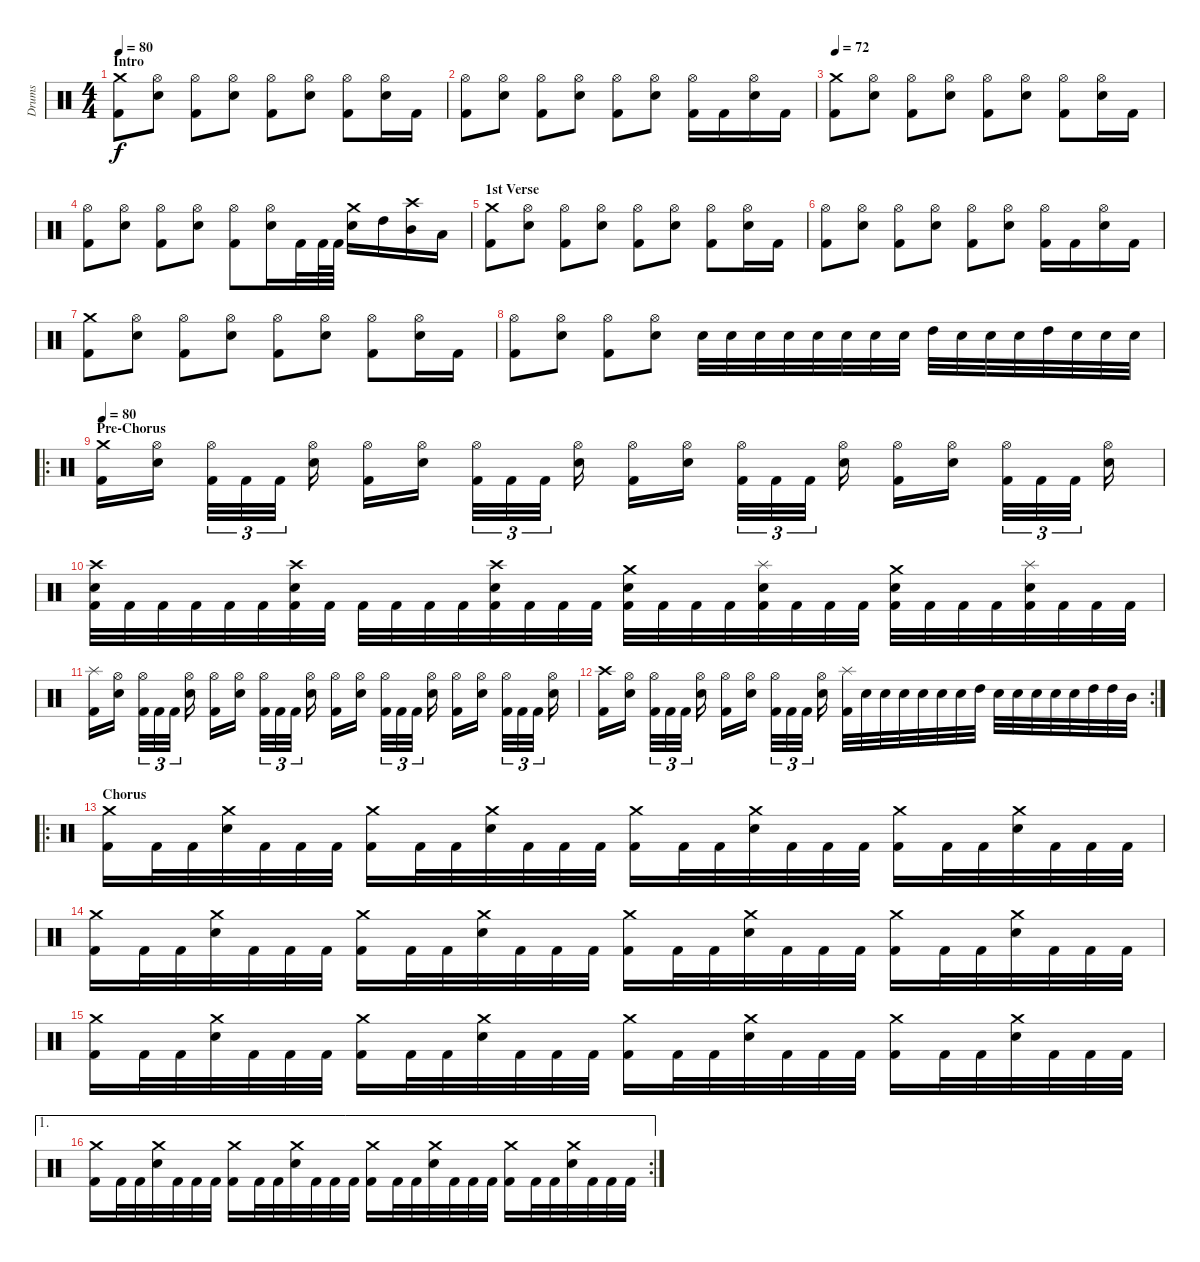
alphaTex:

\track ("Drums" "Drums") {instrument percussion}
\staff {score}
\articulation defaults
\ts (4 4)
\section ("" "Intro")
\tempo 80
\tempo 72
\tempo 80
\clef neutral
\ks c
("Crash medium (hit)" "Kick (hit) 2").8{dy f} ("Hi-Hat (open)" "Electric Snare (hit)").8 ("Hi-Hat (open)" "Kick (hit) 2").8 ("Hi-Hat (open)" "Electric Snare (hit)").8 ("Hi-Hat (open)" "Kick (hit) 2").8 ("Hi-Hat (open)" "Electric Snare (hit)").8 ("Hi-Hat (open)" "Kick (hit) 2").8 ("Hi-Hat (open)" "Electric Snare (hit)").16 "Kick (hit) 2".16 |
("Hi-Hat (open)" "Kick (hit) 2").8 ("Hi-Hat (open)" "Electric Snare (hit)").8 ("Hi-Hat (open)" "Kick (hit) 2").8 ("Hi-Hat (open)" "Electric Snare (hit)").8 ("Hi-Hat (open)" "Kick (hit) 2").8 ("Hi-Hat (open)" "Electric Snare (hit)").8 ("Hi-Hat (open)" "Kick (hit) 2").16 "Kick (hit) 2".16 ("Hi-Hat (open)" "Electric Snare (hit)").16 "Kick (hit) 2".16 |
\tempo 72
("Crash medium (hit)" "Kick (hit) 2").8 ("Hi-Hat (open)" "Electric Snare (hit)").8 ("Hi-Hat (open)" "Kick (hit) 2").8 ("Hi-Hat (open)" "Electric Snare (hit)").8 ("Hi-Hat (open)" "Kick (hit) 2").8 ("Hi-Hat (open)" "Electric Snare (hit)").8 ("Hi-Hat (open)" "Kick (hit) 2").8 ("Hi-Hat (open)" "Electric Snare (hit)").16 "Kick (hit) 2".16 |
("Hi-Hat (open)" "Kick (hit) 2").8 ("Hi-Hat (open)" "Electric Snare (hit)").8 ("Hi-Hat (open)" "Kick (hit) 2").8 ("Hi-Hat (open)" "Electric Snare (hit)").8 ("Hi-Hat (open)" "Kick (hit) 2").8 ("Hi-Hat (open)" "Electric Snare (hit)").16 "Kick (hit) 2".32 "Kick (hit) 2".64 "Kick (hit) 2".64 ("Crash medium (hit)" "Electric Snare (hit)").16 "High Tom (hit)".16 ("Crash high (hit)" "Mid Tom (hit)").16 "Low Tom (hit)".16 |
\section ("" "1st Verse")
("Crash medium (hit)" "Kick (hit) 2").8 ("Hi-Hat (open)" "Electric Snare (hit)").8 ("Hi-Hat (open)" "Kick (hit) 2").8 ("Hi-Hat (open)" "Electric Snare (hit)").8 ("Hi-Hat (open)" "Kick (hit) 2").8 ("Hi-Hat (open)" "Electric Snare (hit)").8 ("Hi-Hat (open)" "Kick (hit) 2").8 ("Hi-Hat (open)" "Electric Snare (hit)").16 "Kick (hit) 2".16 |
("Hi-Hat (open)" "Kick (hit) 2").8 ("Hi-Hat (open)" "Electric Snare (hit)").8 ("Hi-Hat (open)" "Kick (hit) 2").8 ("Hi-Hat (open)" "Electric Snare (hit)").8 ("Hi-Hat (open)" "Kick (hit) 2").8 ("Hi-Hat (open)" "Electric Snare (hit)").8 ("Hi-Hat (open)" "Kick (hit) 2").16 "Kick (hit) 2".16 ("Hi-Hat (open)" "Electric Snare (hit)").16 "Kick (hit) 2".16 |
("Crash medium (hit)" "Kick (hit) 2").8 ("Hi-Hat (open)" "Electric Snare (hit)").8 ("Hi-Hat (open)" "Kick (hit) 2").8 ("Hi-Hat (open)" "Electric Snare (hit)").8 ("Hi-Hat (open)" "Kick (hit) 2").8 ("Hi-Hat (open)" "Electric Snare (hit)").8 ("Hi-Hat (open)" "Kick (hit) 2").8 ("Hi-Hat (open)" "Electric Snare (hit)").16 "Kick (hit) 2".16 |
("Hi-Hat (open)" "Kick (hit) 2").8 ("Hi-Hat (open)" "Electric Snare (hit)").8 ("Hi-Hat (open)" "Kick (hit) 2").8 ("Hi-Hat (open)" "Electric Snare (hit)").8 "Electric Snare (hit)".32{volume 7} "Electric Snare (hit)".32{volume 16} "Electric Snare (hit)".32 "Electric Snare (hit)".32 "Electric Snare (hit)".32 "Electric Snare (hit)".32 "Electric Snare (hit)".32 "Electric Snare (hit)".32 "High Tom (hit)".32 "Electric Snare (hit)".32 "Electric Snare (hit)".32 "Electric Snare (hit)".32 "High Tom (hit)".32 "Electric Snare (hit)".32 "Electric Snare (hit)".32 "Electric Snare (hit)".32 |
\ro
\section ("" "Pre-Chorus")
\tempo 80
("Crash medium (hit)" "Kick (hit) 2").16 ("Hi-Hat (open)" "Electric Snare (hit)").16 ("Hi-Hat (open)" "Kick (hit) 2").32{tu (3 2)} "Kick (hit) 2".32{tu (3 2)} "Kick (hit) 2".32{tu (3 2)} ("Hi-Hat (open)" "Electric Snare (hit)").16 ("Hi-Hat (open)" "Kick (hit) 2").16 ("Hi-Hat (open)" "Electric Snare (hit)").16 ("Hi-Hat (open)" "Kick (hit) 2").32{tu (3 2)} "Kick (hit) 2".32{tu (3 2)} "Kick (hit) 2".32{tu (3 2)} ("Hi-Hat (open)" "Electric Snare (hit)").16 ("Hi-Hat (open)" "Kick (hit) 2").16 ("Hi-Hat (open)" "Electric Snare (hit)").16 ("Hi-Hat (open)" "Kick (hit) 2").32{tu (3 2)} "Kick (hit) 2".32{tu (3 2)} "Kick (hit) 2".32{tu (3 2)} ("Hi-Hat (open)" "Electric Snare (hit)").16 ("Hi-Hat (open)" "Kick (hit) 2").16 ("Hi-Hat (open)" "Electric Snare (hit)").16 ("Hi-Hat (open)" "Kick (hit) 2").32{tu (3 2)} "Kick (hit) 2".32{tu (3 2)} "Kick (hit) 2".32{tu (3 2)} ("Hi-Hat (open)" "Electric Snare (hit)").16 |
("Crash high (hit)" "Electric Snare (hit)" "Kick (hit) 2").32 "Kick (hit) 2".32 "Kick (hit) 2".32 "Kick (hit) 2".32 "Kick (hit) 2".32 "Kick (hit) 2".32 ("Crash high (hit)" "Electric Snare (hit)" "Kick (hit) 2").32 "Kick (hit) 2".32 "Kick (hit) 2".32 "Kick (hit) 2".32 "Kick (hit) 2".32 "Kick (hit) 2".32 ("Crash high (hit)" "Electric Snare (hit)" "Kick (hit) 2").32 "Kick (hit) 2".32 "Kick (hit) 2".32 "Kick (hit) 2".32 ("Crash medium (hit)" "Electric Snare (hit)" "Kick (hit) 2").32 "Kick (hit) 2".32 "Kick (hit) 2".32 "Kick (hit) 2".32 ("Splash (hit)" "Electric Snare (hit)" "Kick (hit) 2").32 "Kick (hit) 2".32 "Kick (hit) 2".32 "Kick (hit) 2".32 ("Crash medium (hit)" "Electric Snare (hit)" "Kick (hit) 2").32 "Kick (hit) 2".32 "Kick (hit) 2".32 "Kick (hit) 2".32 ("Splash (hit)" "Electric Snare (hit)" "Kick (hit) 2").32 "Kick (hit) 2".32 "Kick (hit) 2".32 "Kick (hit) 2".32 |
("Splash (hit)" "Kick (hit) 2").16 ("Hi-Hat (open)" "Electric Snare (hit)").16 ("Hi-Hat (open)" "Kick (hit) 2").32{tu (3 2)} "Kick (hit) 2".32{tu (3 2)} "Kick (hit) 2".32{tu (3 2)} ("Hi-Hat (open)" "Electric Snare (hit)").16 ("Hi-Hat (open)" "Kick (hit) 2").16 ("Hi-Hat (open)" "Electric Snare (hit)").16 ("Hi-Hat (open)" "Kick (hit) 2").32{tu (3 2)} "Kick (hit) 2".32{tu (3 2)} "Kick (hit) 2".32{tu (3 2)} ("Hi-Hat (open)" "Electric Snare (hit)").16 ("Hi-Hat (open)" "Kick (hit) 2").16 ("Hi-Hat (open)" "Electric Snare (hit)").16 ("Hi-Hat (open)" "Kick (hit) 2").32{tu (3 2)} "Kick (hit) 2".32{tu (3 2)} "Kick (hit) 2".32{tu (3 2)} ("Hi-Hat (open)" "Electric Snare (hit)").16 ("Hi-Hat (open)" "Kick (hit) 2").16 ("Hi-Hat (open)" "Electric Snare (hit)").16 ("Hi-Hat (open)" "Kick (hit) 2").32{tu (3 2)} "Kick (hit) 2".32{tu (3 2)} "Kick (hit) 2".32{tu (3 2)} ("Hi-Hat (open)" "Electric Snare (hit)").16 |
\rc 2
("Crash high (hit)" "Kick (hit) 2").16 ("Hi-Hat (open)" "Electric Snare (hit)").16 ("Hi-Hat (open)" "Kick (hit) 2").32{tu (3 2)} "Kick (hit) 2".32{tu (3 2)} "Kick (hit) 2".32{tu (3 2)} ("Hi-Hat (open)" "Electric Snare (hit)").16 ("Hi-Hat (open)" "Kick (hit) 2").16 ("Hi-Hat (open)" "Electric Snare (hit)").16 ("Hi-Hat (open)" "Kick (hit) 2").32{tu (3 2)} "Kick (hit) 2".32{tu (3 2)} "Kick (hit) 2".32{tu (3 2)} ("Hi-Hat (open)" "Electric Snare (hit)").16 ("Splash (hit)" "Kick (hit) 2").32 "Electric Snare (hit)".32{volume 6} "Electric Snare (hit)".32{volume 16} "Electric Snare (hit)".32 "Electric Snare (hit)".32 "Electric Snare (hit)".32 "Electric Snare (hit)".32 "High Tom (hit)".32 "Electric Snare (hit)".32 "Electric Snare (hit)".32 "Electric Snare (hit)".32 "Electric Snare (hit)".32 "Electric Snare (hit)".32 "High Tom (hit)".32 "High Tom (hit)".32 "Mid Tom (hit)".32 |
\ro
\section ("" "Chorus")
("Crash medium (hit)" "Kick (hit) 2").16 "Kick (hit) 2".32 "Kick (hit) 2".32 ("Crash medium (hit)" "Electric Snare (hit)").32 "Kick (hit) 2".32 "Kick (hit) 2".32 "Kick (hit) 2".32 ("Crash medium (hit)" "Kick (hit) 2").16 "Kick (hit) 2".32 "Kick (hit) 2".32 ("Crash medium (hit)" "Electric Snare (hit)").32 "Kick (hit) 2".32 "Kick (hit) 2".32 "Kick (hit) 2".32 ("Crash medium (hit)" "Kick (hit) 2").16 "Kick (hit) 2".32 "Kick (hit) 2".32 ("Crash medium (hit)" "Electric Snare (hit)").32 "Kick (hit) 2".32 "Kick (hit) 2".32 "Kick (hit) 2".32 ("Crash medium (hit)" "Kick (hit) 2").16 "Kick (hit) 2".32 "Kick (hit) 2".32 ("Crash medium (hit)" "Electric Snare (hit)").32 "Kick (hit) 2".32 "Kick (hit) 2".32 "Kick (hit) 2".32 |
("Crash medium (hit)" "Kick (hit) 2").16 "Kick (hit) 2".32 "Kick (hit) 2".32 ("Crash medium (hit)" "Electric Snare (hit)").32 "Kick (hit) 2".32 "Kick (hit) 2".32 "Kick (hit) 2".32 ("Crash medium (hit)" "Kick (hit) 2").16 "Kick (hit) 2".32 "Kick (hit) 2".32 ("Crash medium (hit)" "Electric Snare (hit)").32 "Kick (hit) 2".32 "Kick (hit) 2".32 "Kick (hit) 2".32 ("Crash medium (hit)" "Kick (hit) 2").16 "Kick (hit) 2".32 "Kick (hit) 2".32 ("Crash medium (hit)" "Electric Snare (hit)").32 "Kick (hit) 2".32 "Kick (hit) 2".32 "Kick (hit) 2".32 ("Crash medium (hit)" "Kick (hit) 2").16 "Kick (hit) 2".32 "Kick (hit) 2".32 ("Crash medium (hit)" "Electric Snare (hit)").32 "Kick (hit) 2".32 "Kick (hit) 2".32 "Kick (hit) 2".32 |
("Crash medium (hit)" "Kick (hit) 2").16 "Kick (hit) 2".32 "Kick (hit) 2".32 ("Crash medium (hit)" "Electric Snare (hit)").32 "Kick (hit) 2".32 "Kick (hit) 2".32 "Kick (hit) 2".32 ("Crash medium (hit)" "Kick (hit) 2").16 "Kick (hit) 2".32 "Kick (hit) 2".32 ("Crash medium (hit)" "Electric Snare (hit)").32 "Kick (hit) 2".32 "Kick (hit) 2".32 "Kick (hit) 2".32 ("Crash medium (hit)" "Kick (hit) 2").16 "Kick (hit) 2".32 "Kick (hit) 2".32 ("Crash medium (hit)" "Electric Snare (hit)").32 "Kick (hit) 2".32 "Kick (hit) 2".32 "Kick (hit) 2".32 ("Crash medium (hit)" "Kick (hit) 2").16 "Kick (hit) 2".32 "Kick (hit) 2".32 ("Crash medium (hit)" "Electric Snare (hit)").32 "Kick (hit) 2".32 "Kick (hit) 2".32 "Kick (hit) 2".32 |
\ae 1
\rc 2
("Crash medium (hit)" "Kick (hit) 2").16 "Kick (hit) 2".32 "Kick (hit) 2".32 ("Crash medium (hit)" "Electric Snare (hit)").32 "Kick (hit) 2".32 "Kick (hit) 2".32 "Kick (hit) 2".32 ("Crash medium (hit)" "Kick (hit) 2").16 "Kick (hit) 2".32 "Kick (hit) 2".32 ("Crash medium (hit)" "Electric Snare (hit)").32 "Kick (hit) 2".32 "Kick (hit) 2".32 "Kick (hit) 2".32 ("Crash medium (hit)" "Kick (hit) 2").16 "Kick (hit) 2".32 "Kick (hit) 2".32 ("Crash medium (hit)" "Electric Snare (hit)").32 "Kick (hit) 2".32 "Kick (hit) 2".32 "Kick (hit) 2".32 ("Crash medium (hit)" "Kick (hit) 2").16 "Kick (hit) 2".32 "Kick (hit) 2".32 ("Crash medium (hit)" "Electric Snare (hit)").32 "Kick (hit) 2".32 "Kick (hit) 2".32 "Kick (hit) 2".32
